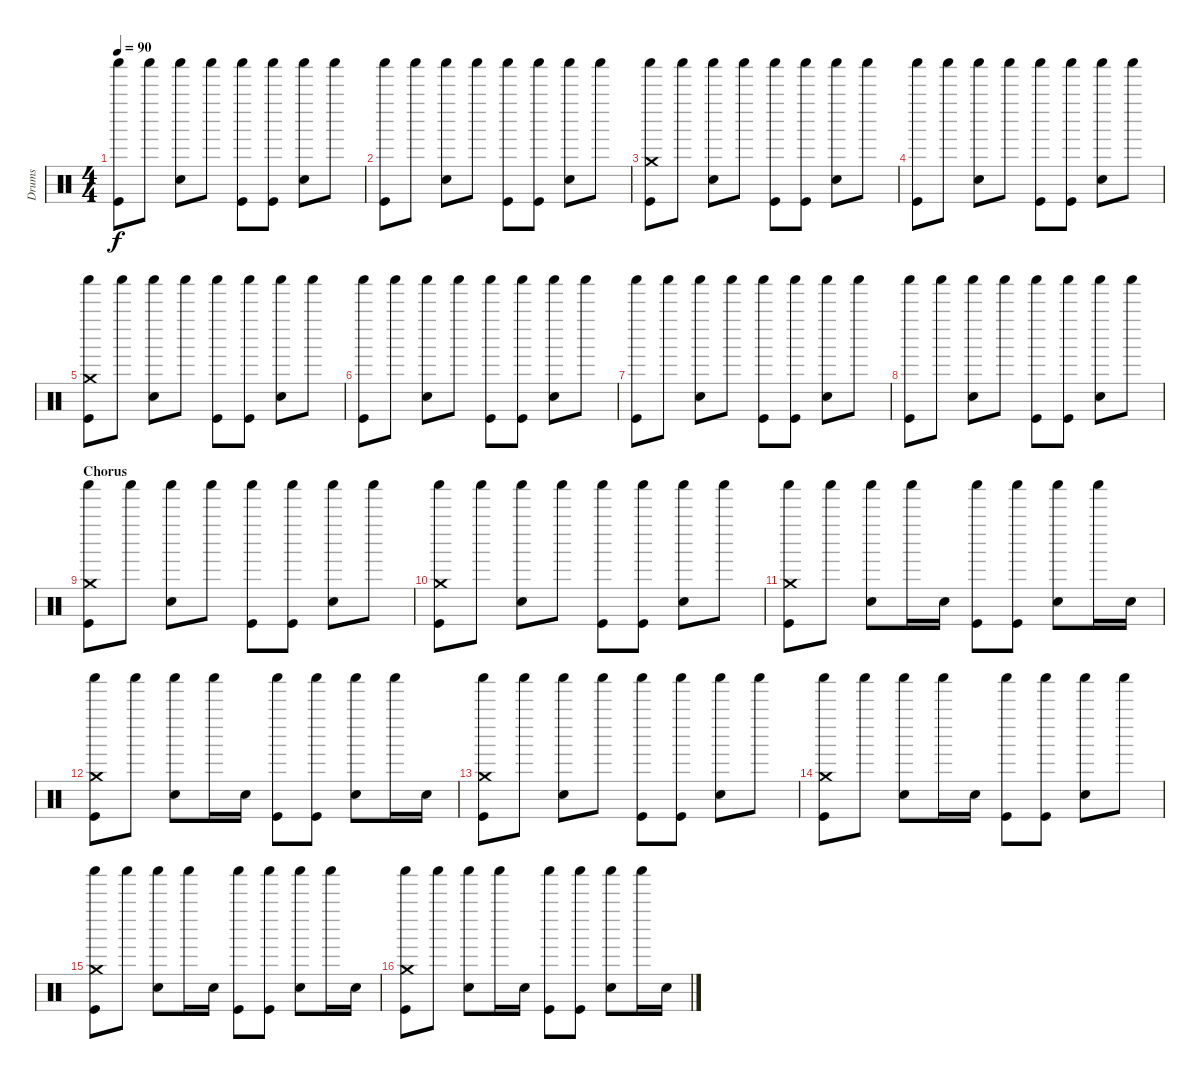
\track ("Drums" "Drums") {instrument percussion}
\staff {score}
\articulation defaults
\ts (4 4)
\tempo 90
\clef neutral
\ks c
("Shaker (hit)" "Kick (hit)").8{dy f} "Shaker (hit)".8 ("Shaker (hit)" "Snare (hit) 2").8 "Shaker (hit)".8 ("Shaker (hit)" "Kick (hit)").8 ("Shaker (hit)" "Kick (hit)").8 ("Shaker (hit)" "Snare (hit) 2").8 "Shaker (hit)".8 |
("Shaker (hit)" "Kick (hit)").8 "Shaker (hit)".8 ("Shaker (hit)" "Snare (hit) 2").8 "Shaker (hit)".8 ("Shaker (hit)" "Kick (hit)").8 ("Shaker (hit)" "Kick (hit)").8 ("Shaker (hit)" "Snare (hit) 2").8 "Shaker (hit)".8 |
("Shaker (hit)" "Crash medium (hit)" "Kick (hit)").8 "Shaker (hit)".8 ("Shaker (hit)" "Snare (hit) 2").8 "Shaker (hit)".8 ("Shaker (hit)" "Kick (hit)").8 ("Shaker (hit)" "Kick (hit)").8 ("Shaker (hit)" "Snare (hit) 2").8 "Shaker (hit)".8 |
("Shaker (hit)" "Kick (hit)").8 "Shaker (hit)".8 ("Shaker (hit)" "Snare (hit) 2").8 "Shaker (hit)".8 ("Shaker (hit)" "Kick (hit)").8 ("Shaker (hit)" "Kick (hit)").8 ("Shaker (hit)" "Snare (hit) 2").8 "Shaker (hit)".8 |
("Shaker (hit)" "Crash medium (hit)" "Kick (hit)").8 "Shaker (hit)".8 ("Shaker (hit)" "Snare (hit) 2").8 "Shaker (hit)".8 ("Shaker (hit)" "Kick (hit)").8 ("Shaker (hit)" "Kick (hit)").8 ("Shaker (hit)" "Snare (hit) 2").8 "Shaker (hit)".8 |
("Shaker (hit)" "Kick (hit)").8 "Shaker (hit)".8 ("Shaker (hit)" "Snare (hit) 2").8 "Shaker (hit)".8 ("Shaker (hit)" "Kick (hit)").8 ("Shaker (hit)" "Kick (hit)").8 ("Shaker (hit)" "Snare (hit) 2").8 "Shaker (hit)".8 |
("Shaker (hit)" "Kick (hit)").8 "Shaker (hit)".8 ("Shaker (hit)" "Snare (hit) 2").8 "Shaker (hit)".8 ("Shaker (hit)" "Kick (hit)").8 ("Shaker (hit)" "Kick (hit)").8 ("Shaker (hit)" "Snare (hit) 2").8 "Shaker (hit)".8 |
("Shaker (hit)" "Kick (hit)").8 "Shaker (hit)".8 ("Shaker (hit)" "Snare (hit) 2").8 "Shaker (hit)".8 ("Shaker (hit)" "Kick (hit)").8 ("Shaker (hit)" "Kick (hit)").8 ("Shaker (hit)" "Snare (hit) 2").8 "Shaker (hit)".8 |
\section ("" "Chorus")
("Shaker (hit)" "Crash medium (hit)" "Kick (hit)").8 "Shaker (hit)".8 ("Shaker (hit)" "Snare (hit) 2").8 "Shaker (hit)".8 ("Shaker (hit)" "Kick (hit)").8 ("Shaker (hit)" "Kick (hit)").8 ("Shaker (hit)" "Snare (hit) 2").8 "Shaker (hit)".8 |
("Shaker (hit)" "Crash medium (hit)" "Kick (hit)").8 "Shaker (hit)".8 ("Shaker (hit)" "Snare (hit) 2").8 "Shaker (hit)".8 ("Shaker (hit)" "Kick (hit)").8 ("Shaker (hit)" "Kick (hit)").8 ("Shaker (hit)" "Snare (hit) 2").8 "Shaker (hit)".8 |
("Shaker (hit)" "Crash medium (hit)" "Kick (hit)").8 "Shaker (hit)".8 ("Shaker (hit)" "Snare (hit) 2").8 "Shaker (hit)".16 "Snare (hit) 2".16 ("Shaker (hit)" "Kick (hit)").8 ("Shaker (hit)" "Kick (hit)").8 ("Shaker (hit)" "Snare (hit) 2").8 "Shaker (hit)".16 "Snare (hit) 2".16 |
("Shaker (hit)" "Crash medium (hit)" "Kick (hit)").8 "Shaker (hit)".8 ("Shaker (hit)" "Snare (hit) 2").8 "Shaker (hit)".16 "Snare (hit) 2".16 ("Shaker (hit)" "Kick (hit)").8 ("Shaker (hit)" "Kick (hit)").8 ("Shaker (hit)" "Snare (hit) 2").8 "Shaker (hit)".16 "Snare (hit) 2".16 |
("Shaker (hit)" "Crash medium (hit)" "Kick (hit)").8 "Shaker (hit)".8 ("Shaker (hit)" "Snare (hit) 2").8 "Shaker (hit)".8 ("Shaker (hit)" "Kick (hit)").8 ("Shaker (hit)" "Kick (hit)").8 ("Shaker (hit)" "Snare (hit) 2").8 "Shaker (hit)".8 |
("Shaker (hit)" "Crash medium (hit)" "Kick (hit)").8 "Shaker (hit)".8 ("Shaker (hit)" "Snare (hit) 2").8 "Shaker (hit)".16 "Snare (hit) 2".16 ("Shaker (hit)" "Kick (hit)").8 ("Shaker (hit)" "Kick (hit)").8 ("Shaker (hit)" "Snare (hit) 2").8 "Shaker (hit)".8 |
("Shaker (hit)" "Crash medium (hit)" "Kick (hit)").8 "Shaker (hit)".8 ("Shaker (hit)" "Snare (hit) 2").8 "Shaker (hit)".16 "Snare (hit) 2".16 ("Shaker (hit)" "Kick (hit)").8 ("Shaker (hit)" "Kick (hit)").8 ("Shaker (hit)" "Snare (hit) 2").8 "Shaker (hit)".16 "Snare (hit) 2".16 |
("Shaker (hit)" "Crash medium (hit)" "Kick (hit)").8 "Shaker (hit)".8 ("Shaker (hit)" "Snare (hit) 2").8 "Shaker (hit)".16 "Snare (hit) 2".16 ("Shaker (hit)" "Kick (hit)").8 ("Shaker (hit)" "Kick (hit)").8 ("Shaker (hit)" "Snare (hit) 2").8 "Shaker (hit)".16 "Snare (hit) 2".16
